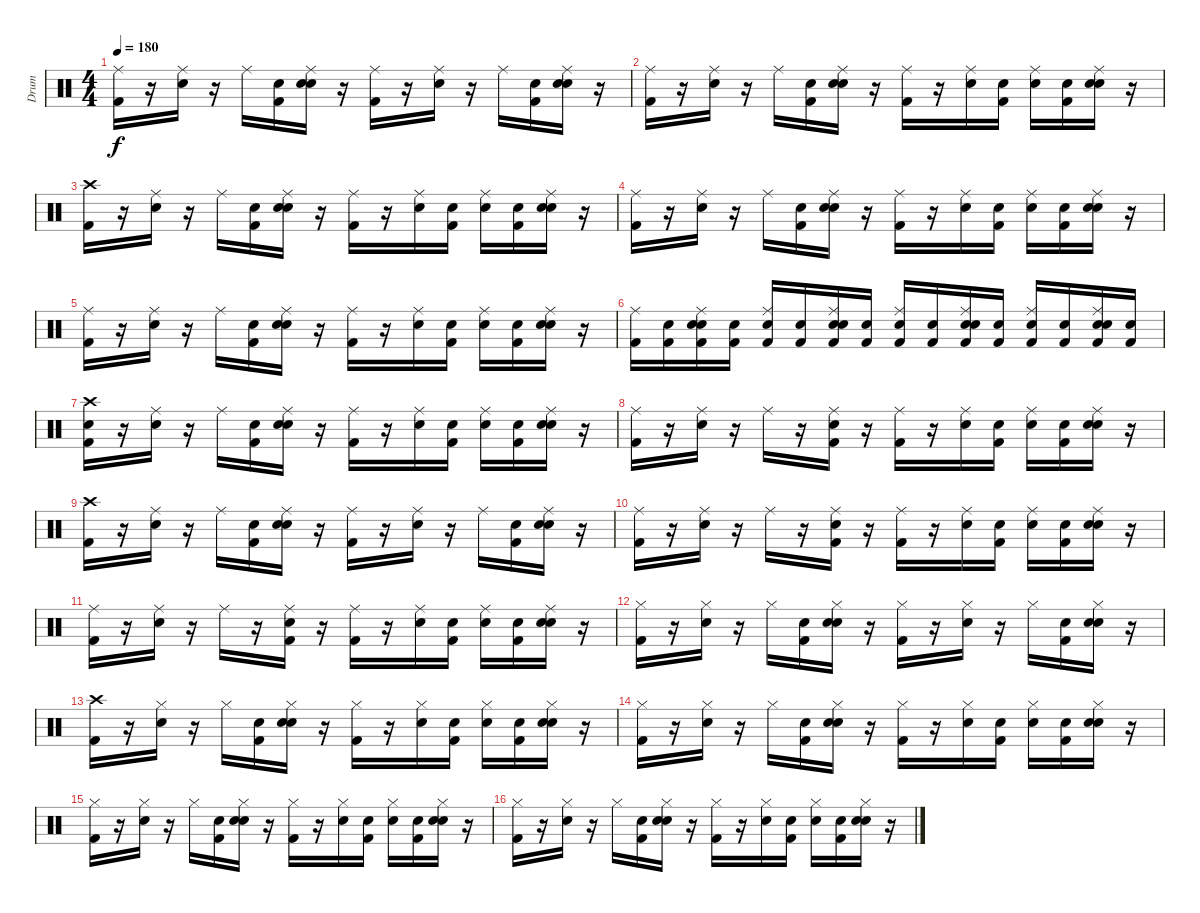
\track ("Drum" "Drum") {instrument percussion}
\staff {score}
\articulation defaults
\ts (4 4)
\tempo 180
\clef neutral
\ks c
("Kick (hit) 2" "Ride (middle)").16{dy f} r.16 ("Snare (hit) 2" "Ride (middle)").16 r.16 "Ride (middle)".16 ("Snare (hit)" "Kick (hit) 2").16 ("Snare (hit)" "Snare (hit) 2" "Ride (middle)").16 r.16 ("Kick (hit) 2" "Ride (middle)").16 r.16 ("Snare (hit) 2" "Ride (middle)").16 r.16 "Ride (middle)".16 ("Snare (hit)" "Kick (hit) 2").16 ("Snare (hit)" "Snare (hit) 2" "Ride (middle)").16 r.16 |
("Kick (hit) 2" "Ride (middle)").16 r.16 ("Snare (hit) 2" "Ride (middle)").16 r.16 "Ride (middle)".16 ("Snare (hit)" "Kick (hit) 2").16 ("Snare (hit)" "Snare (hit) 2" "Ride (middle)").16 r.16 ("Kick (hit) 2" "Ride (middle)").16 r.16 ("Snare (hit) 2" "Ride (middle)").16 ("Snare (hit)" "Kick (hit) 2").16 ("Snare (hit)" "Ride (middle)").16 ("Snare (hit)" "Kick (hit) 2").16 ("Snare (hit)" "Snare (hit) 2" "Ride (middle)").16 r.16 |
("Kick (hit) 2" "Crash high (hit)").16 r.16 ("Snare (hit) 2" "Ride (middle)").16 r.16 "Ride (middle)".16 ("Snare (hit)" "Kick (hit) 2").16 ("Snare (hit)" "Snare (hit) 2" "Ride (middle)").16 r.16 ("Kick (hit) 2" "Ride (middle)").16 r.16 ("Snare (hit) 2" "Ride (middle)").16 ("Snare (hit)" "Kick (hit) 2").16 ("Snare (hit)" "Ride (middle)").16 ("Snare (hit)" "Kick (hit) 2").16 ("Snare (hit)" "Snare (hit) 2" "Ride (middle)").16 r.16 |
("Kick (hit) 2" "Ride (middle)").16 r.16 ("Snare (hit) 2" "Ride (middle)").16 r.16 "Ride (middle)".16 ("Snare (hit)" "Kick (hit) 2").16 ("Snare (hit)" "Snare (hit) 2" "Ride (middle)").16 r.16 ("Kick (hit) 2" "Ride (middle)").16 r.16 ("Snare (hit) 2" "Ride (middle)").16 ("Snare (hit)" "Kick (hit) 2").16 ("Snare (hit)" "Ride (middle)").16 ("Snare (hit)" "Kick (hit) 2").16 ("Snare (hit)" "Snare (hit) 2" "Ride (middle)").16 r.16 |
("Kick (hit) 2" "Ride (middle)").16 r.16 ("Snare (hit) 2" "Ride (middle)").16 r.16 "Ride (middle)".16 ("Snare (hit)" "Kick (hit) 2").16 ("Snare (hit)" "Snare (hit) 2" "Ride (middle)").16 r.16 ("Kick (hit) 2" "Ride (middle)").16 r.16 ("Snare (hit) 2" "Ride (middle)").16 ("Snare (hit)" "Kick (hit) 2").16 ("Snare (hit)" "Ride (middle)").16 ("Snare (hit)" "Kick (hit) 2").16 ("Snare (hit)" "Snare (hit) 2" "Ride (middle)").16 r.16 |
("Ride (middle)" "Kick (hit) 2").16 ("Snare (hit)" "Kick (hit) 2").16 ("Snare (hit)" "Snare (hit) 2" "Ride (middle)" "Kick (hit) 2").16 ("Snare (hit)" "Kick (hit) 2").16 ("Snare (hit)" "Ride (middle)" "Kick (hit) 2").16 ("Snare (hit)" "Kick (hit) 2").16 ("Snare (hit)" "Snare (hit) 2" "Ride (middle)" "Kick (hit) 2").16 ("Snare (hit)" "Kick (hit) 2").16 ("Snare (hit)" "Ride (middle)" "Kick (hit) 2").16 ("Snare (hit)" "Kick (hit) 2").16 ("Snare (hit)" "Ride (middle)" "Kick (hit) 2" "Snare (hit) 2").16 ("Snare (hit)" "Kick (hit) 2").16 ("Snare (hit)" "Ride (middle)" "Kick (hit) 2").16 ("Snare (hit)" "Kick (hit) 2").16 ("Snare (hit)" "Snare (hit) 2" "Ride (middle)" "Kick (hit) 2").16 ("Snare (hit)" "Kick (hit) 2").16 |
("Snare (hit)" "Crash high (hit)" "Kick (hit) 2").16 r.16 ("Snare (hit) 2" "Ride (middle)").16 r.16 "Ride (middle)".16 ("Snare (hit)" "Kick (hit) 2").16 ("Snare (hit)" "Snare (hit) 2" "Ride (middle)").16 r.16 ("Kick (hit) 2" "Ride (middle)").16 r.16 ("Snare (hit) 2" "Ride (middle)").16 ("Snare (hit)" "Kick (hit) 2").16 ("Snare (hit)" "Ride (middle)").16 ("Snare (hit)" "Kick (hit) 2").16 ("Snare (hit)" "Snare (hit) 2" "Ride (middle)").16 r.16 |
("Kick (hit) 2" "Ride (middle)").16 r.16 ("Snare (hit) 2" "Ride (middle)").16 r.16 "Ride (middle)".16 r.16 ("Kick (hit) 2" "Snare (hit) 2" "Ride (middle)").16 r.16 ("Kick (hit) 2" "Ride (middle)").16 r.16 ("Snare (hit) 2" "Ride (middle)").16 ("Snare (hit)" "Kick (hit) 2").16 ("Snare (hit)" "Ride (middle)").16 ("Snare (hit)" "Kick (hit) 2").16 ("Snare (hit)" "Ride (middle)" "Snare (hit) 2").16 r.16 |
("Kick (hit) 2" "Crash high (hit)").16 r.16 ("Snare (hit) 2" "Ride (middle)").16 r.16 "Ride (middle)".16 ("Snare (hit)" "Kick (hit) 2").16 ("Snare (hit)" "Snare (hit) 2" "Ride (middle)").16 r.16 ("Kick (hit) 2" "Ride (middle)").16 r.16 ("Snare (hit) 2" "Ride (middle)").16 r.16 "Ride (middle)".16 ("Snare (hit)" "Kick (hit) 2").16 ("Snare (hit)" "Snare (hit) 2" "Ride (middle)").16 r.16 |
("Kick (hit) 2" "Ride (middle)").16 r.16 ("Snare (hit) 2" "Ride (middle)").16 r.16 "Ride (middle)".16 r.16 ("Kick (hit) 2" "Snare (hit) 2" "Ride (middle)").16 r.16 ("Kick (hit) 2" "Ride (middle)").16 r.16 ("Snare (hit) 2" "Ride (middle)").16 ("Snare (hit)" "Kick (hit) 2").16 ("Snare (hit)" "Ride (middle)").16 ("Snare (hit)" "Kick (hit) 2").16 ("Snare (hit)" "Ride (middle)" "Snare (hit) 2").16 r.16 |
("Kick (hit) 2" "Ride (middle)").16 r.16 ("Snare (hit) 2" "Ride (middle)").16 r.16 "Ride (middle)".16 r.16 ("Kick (hit) 2" "Snare (hit) 2" "Ride (middle)").16 r.16 ("Kick (hit) 2" "Ride (middle)").16 r.16 ("Snare (hit) 2" "Ride (middle)").16 ("Snare (hit)" "Kick (hit) 2").16 ("Snare (hit)" "Ride (middle)").16 ("Snare (hit)" "Kick (hit) 2").16 ("Snare (hit)" "Ride (middle)" "Snare (hit) 2").16 r.16 |
("Kick (hit) 2" "Hi-Hat (closed)").16 r.16 ("Snare (hit) 2" "Hi-Hat (closed)").16 r.16 "Hi-Hat (closed)".16 ("Snare (hit)" "Kick (hit) 2").16 ("Snare (hit)" "Snare (hit) 2" "Hi-Hat (closed)").16 r.16 ("Kick (hit) 2" "Hi-Hat (closed)").16 r.16 ("Snare (hit) 2" "Hi-Hat (closed)").16 r.16 "Hi-Hat (closed)".16 ("Snare (hit)" "Kick (hit) 2").16 ("Snare (hit)" "Snare (hit) 2" "Hi-Hat (closed)").16 r.16 |
("Kick (hit) 2" "Crash high (hit)").16 r.16 ("Snare (hit) 2" "Hi-Hat (closed)").16 r.16 "Hi-Hat (closed)".16 ("Snare (hit)" "Kick (hit) 2").16 ("Snare (hit)" "Snare (hit) 2" "Hi-Hat (closed)").16 r.16 ("Kick (hit) 2" "Hi-Hat (closed)").16 r.16 ("Snare (hit) 2" "Hi-Hat (closed)").16 ("Snare (hit)" "Kick (hit) 2").16 ("Snare (hit)" "Hi-Hat (closed)").16 ("Snare (hit)" "Kick (hit) 2").16 ("Snare (hit)" "Snare (hit) 2" "Hi-Hat (closed)").16 r.16 |
("Kick (hit) 2" "Hi-Hat (closed)").16 r.16 ("Snare (hit) 2" "Hi-Hat (closed)").16 r.16 "Hi-Hat (closed)".16 ("Snare (hit)" "Kick (hit) 2").16 ("Snare (hit)" "Snare (hit) 2" "Hi-Hat (closed)").16 r.16 ("Kick (hit) 2" "Hi-Hat (closed)").16 r.16 ("Snare (hit) 2" "Hi-Hat (closed)").16 ("Snare (hit)" "Kick (hit) 2").16 ("Snare (hit)" "Hi-Hat (closed)").16 ("Snare (hit)" "Kick (hit) 2").16 ("Snare (hit)" "Snare (hit) 2" "Hi-Hat (closed)").16 r.16 |
("Kick (hit) 2" "Hi-Hat (closed)").16 r.16 ("Snare (hit) 2" "Hi-Hat (closed)").16 r.16 "Hi-Hat (closed)".16 ("Snare (hit)" "Kick (hit) 2").16 ("Snare (hit)" "Snare (hit) 2" "Hi-Hat (closed)").16 r.16 ("Kick (hit) 2" "Hi-Hat (closed)").16 r.16 ("Snare (hit) 2" "Hi-Hat (closed)").16 ("Snare (hit)" "Kick (hit) 2").16 ("Snare (hit)" "Hi-Hat (closed)").16 ("Snare (hit)" "Kick (hit) 2").16 ("Snare (hit)" "Snare (hit) 2" "Hi-Hat (closed)").16 r.16 |
("Kick (hit) 2" "Hi-Hat (closed)").16 r.16 ("Snare (hit) 2" "Hi-Hat (closed)").16 r.16 "Hi-Hat (closed)".16 ("Snare (hit)" "Kick (hit) 2").16 ("Snare (hit)" "Snare (hit) 2" "Hi-Hat (closed)").16 r.16 ("Kick (hit) 2" "Hi-Hat (closed)").16 r.16 ("Snare (hit) 2" "Hi-Hat (closed)").16 ("Snare (hit)" "Kick (hit) 2").16 ("Snare (hit)" "Hi-Hat (closed)").16 ("Snare (hit)" "Kick (hit) 2").16 ("Snare (hit)" "Snare (hit) 2" "Hi-Hat (closed)").16 r.16
